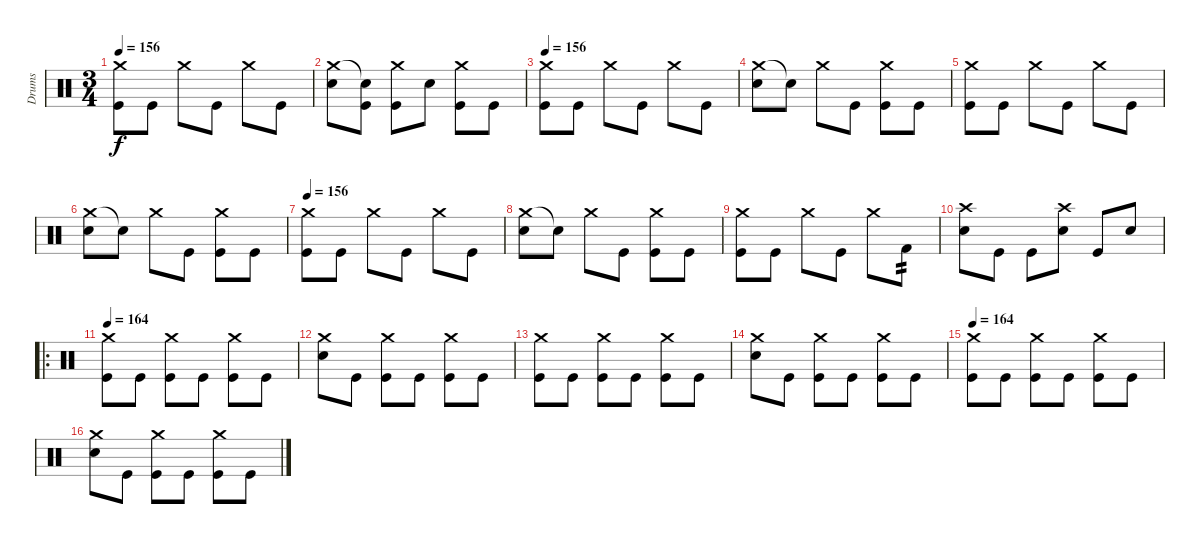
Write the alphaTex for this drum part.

\track ("Drums" "Drums") {instrument percussion}
\staff {score}
\articulation defaults
\ts (3 4)
\tempo 156
\clef neutral
\ks c
("Crash medium (hit)" "Kick (hit)").8{dy f} "Kick (hit)".8 "Crash medium (hit)".8 "Kick (hit)".8 "Crash medium (hit)".8 "Kick (hit)".8 |
("Crash medium (hit)" "Snare (hit) 2").8 ("Snare (hit)"{t} "Kick (hit)").8 ("Crash medium (hit)" "Kick (hit)").8 "Snare (hit) 2".8 ("Crash medium (hit)" "Kick (hit)").8 "Kick (hit)".8 |
\tempo 156
("Crash medium (hit)" "Kick (hit)").8 "Kick (hit)".8 "Crash medium (hit)".8 "Kick (hit)".8 "Crash medium (hit)".8 "Kick (hit)".8 |
("Crash medium (hit)" "Snare (hit) 2").8 "Snare (hit)"{t}.8 "Crash medium (hit)".8 "Kick (hit)".8 ("Crash medium (hit)" "Kick (hit)").8 "Kick (hit)".8 |
("Crash medium (hit)" "Kick (hit)").8 "Kick (hit)".8 "Crash medium (hit)".8 "Kick (hit)".8 "Crash medium (hit)".8 "Kick (hit)".8 |
("Crash medium (hit)" "Snare (hit) 2").8 "Snare (hit)"{t}.8 "Crash medium (hit)".8 "Kick (hit)".8 ("Crash medium (hit)" "Kick (hit)").8 "Kick (hit)".8 |
\tempo 156
("Crash medium (hit)" "Kick (hit)").8 "Kick (hit)".8 "Crash medium (hit)".8 "Kick (hit)".8 "Crash medium (hit)".8 "Kick (hit)".8 |
("Crash medium (hit)" "Snare (hit) 2").8 "Snare (hit)"{t}.8 "Crash medium (hit)".8 "Kick (hit)".8 ("Crash medium (hit)" "Kick (hit)").8 "Kick (hit)".8 |
("Crash medium (hit)" "Kick (hit)").8 "Kick (hit)".8 "Crash medium (hit)".8 "Kick (hit)".8 "Crash medium (hit)".8 "Kick (hit) 2".8{tp 2} |
("Crash high (hit)" "Snare (hit) 2").8 "Kick (hit)".8 "Kick (hit)".8 ("Crash high (hit)" "Snare (hit) 2").8 "Kick (hit)".8 "Snare (hit) 2".8 |
\ro
\tempo 164
("Crash medium (hit)" "Kick (hit)").8 "Kick (hit)".8 ("Crash medium (hit)" "Kick (hit)").8 "Kick (hit)".8 ("Crash medium (hit)" "Kick (hit)").8 "Kick (hit)".8 |
("Crash medium (hit)" "Snare (hit) 2").8 "Kick (hit)".8 ("Crash medium (hit)" "Kick (hit)").8 "Kick (hit)".8 ("Crash medium (hit)" "Kick (hit)").8 "Kick (hit)".8 |
("Crash medium (hit)" "Kick (hit)").8 "Kick (hit)".8 ("Crash medium (hit)" "Kick (hit)").8 "Kick (hit)".8 ("Crash medium (hit)" "Kick (hit)").8 "Kick (hit)".8 |
("Crash medium (hit)" "Snare (hit) 2").8 "Kick (hit)".8 ("Crash medium (hit)" "Kick (hit)").8 "Kick (hit)".8 ("Crash medium (hit)" "Kick (hit)").8 "Kick (hit)".8 |
\tempo 164
("Crash medium (hit)" "Kick (hit)").8 "Kick (hit)".8 ("Crash medium (hit)" "Kick (hit)").8 "Kick (hit)".8 ("Crash medium (hit)" "Kick (hit)").8 "Kick (hit)".8 |
("Crash medium (hit)" "Snare (hit) 2").8 "Kick (hit)".8 ("Crash medium (hit)" "Kick (hit)").8 "Kick (hit)".8 ("Crash medium (hit)" "Kick (hit)").8 "Kick (hit)".8
